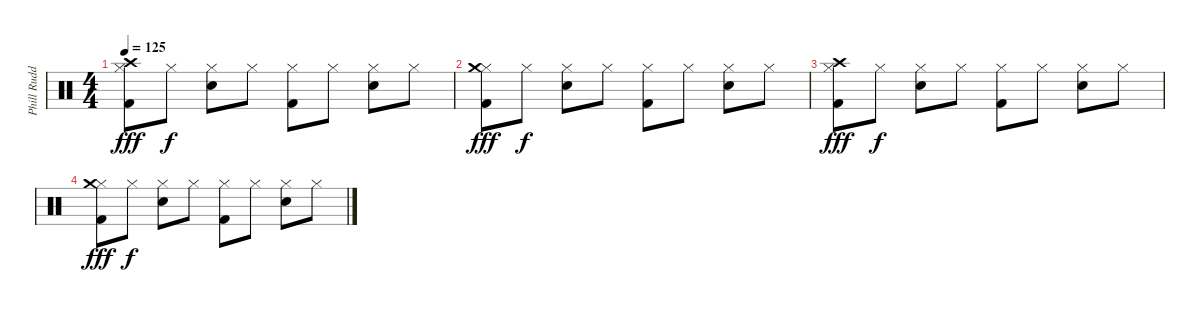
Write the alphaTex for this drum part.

\track ("Phill Rudd" "Phill Rudd") {instrument percussion}
\staff {score}
\articulation defaults
\ts (4 4)
\tempo 125
\clef neutral
\ks c
("Hi-Hat (closed)" "Kick (hit) 2" "Crash high (hit)").8{dy fff} "Hi-Hat (closed)".8{dy f} ("Hi-Hat (closed)" "Electric Snare (hit)").8 "Hi-Hat (closed)".8 ("Hi-Hat (closed)" "Kick (hit) 2").8 "Hi-Hat (closed)".8 ("Hi-Hat (closed)" "Electric Snare (hit)").8 "Hi-Hat (closed)".8 |
("Hi-Hat (closed)" "Kick (hit) 2" "Crash medium (hit)").8{dy fff} "Hi-Hat (closed)".8{dy f} ("Hi-Hat (closed)" "Electric Snare (hit)").8 "Hi-Hat (closed)".8 ("Hi-Hat (closed)" "Kick (hit) 2").8 "Hi-Hat (closed)".8 ("Hi-Hat (closed)" "Electric Snare (hit)").8 "Hi-Hat (closed)".8 |
("Hi-Hat (closed)" "Kick (hit) 2" "Crash high (hit)").8{dy fff} "Hi-Hat (closed)".8{dy f} ("Hi-Hat (closed)" "Electric Snare (hit)").8 "Hi-Hat (closed)".8 ("Hi-Hat (closed)" "Kick (hit) 2").8 "Hi-Hat (closed)".8 ("Hi-Hat (closed)" "Electric Snare (hit)").8 "Hi-Hat (closed)".8 |
("Hi-Hat (closed)" "Kick (hit) 2" "Crash medium (hit)").8{dy fff} "Hi-Hat (closed)".8{dy f} ("Hi-Hat (closed)" "Electric Snare (hit)").8 "Hi-Hat (closed)".8 ("Hi-Hat (closed)" "Kick (hit) 2").8 "Hi-Hat (closed)".8 ("Hi-Hat (closed)" "Electric Snare (hit)").8 "Hi-Hat (closed)".8
